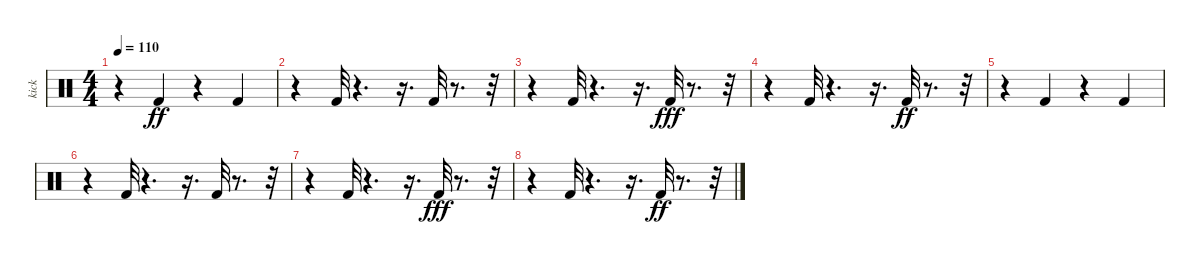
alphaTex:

\track ("kick    " "kick    ") {instrument percussion}
\staff {score}
\articulation defaults
\ts (4 4)
\tempo 110
\clef neutral
\ks c
r.4{dy ff} "Kick (hit) 2".4 r.4 "Kick (hit) 2".4 |
r.4 "Kick (hit) 2".32 r.4{d} r.16{d} "Kick (hit) 2".32 r.8{d} r.32 |
r.4 "Kick (hit) 2".32 r.4{d} r.16{d} "Kick (hit) 2".32{dy fff} r.8{d} r.32 |
r.4 "Kick (hit) 2".32 r.4{d} r.16{d} "Kick (hit) 2".32{dy ff} r.8{d} r.32 |
r.4 "Kick (hit) 2".4 r.4 "Kick (hit) 2".4 |
r.4 "Kick (hit) 2".32 r.4{d} r.16{d} "Kick (hit) 2".32 r.8{d} r.32 |
r.4 "Kick (hit) 2".32 r.4{d} r.16{d} "Kick (hit) 2".32{dy fff} r.8{d} r.32 |
r.4 "Kick (hit) 2".32 r.4{d} r.16{d} "Kick (hit) 2".32{dy ff} r.8{d} r.32
